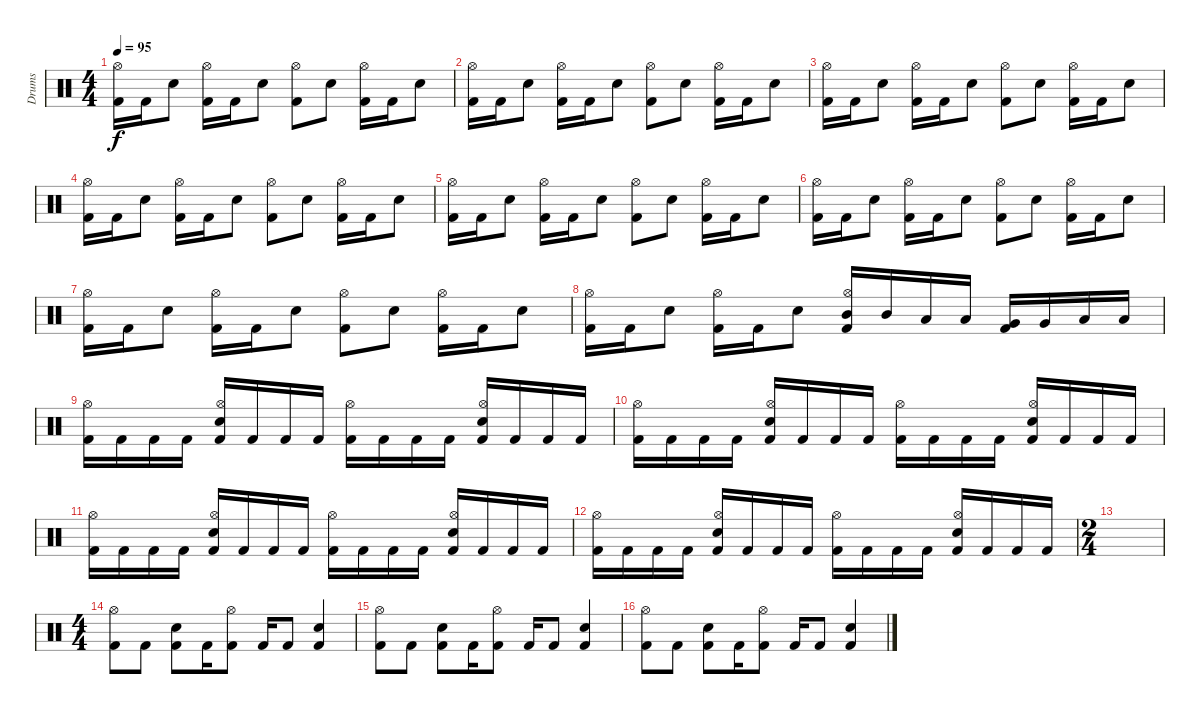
\track ("Drums" "Drums") {instrument percussion}
\staff {score}
\articulation defaults
\ts (4 4)
\tempo 95
\clef neutral
\ks c
("Kick (hit) 2" "Hi-Hat (open)").16{dy f} "Kick (hit) 2".16 "Electric Snare (hit)".8 ("Kick (hit) 2" "Hi-Hat (open)").16 "Kick (hit) 2".16 "Electric Snare (hit)".8 ("Kick (hit) 2" "Hi-Hat (open)").8 "Electric Snare (hit)".8 ("Kick (hit) 2" "Hi-Hat (open)").16 "Kick (hit) 2".16 "Electric Snare (hit)".8 |
("Kick (hit) 2" "Hi-Hat (open)").16 "Kick (hit) 2".16 "Electric Snare (hit)".8 ("Kick (hit) 2" "Hi-Hat (open)").16 "Kick (hit) 2".16 "Electric Snare (hit)".8 ("Kick (hit) 2" "Hi-Hat (open)").8 "Electric Snare (hit)".8 ("Kick (hit) 2" "Hi-Hat (open)").16 "Kick (hit) 2".16 "Electric Snare (hit)".8 |
("Kick (hit) 2" "Hi-Hat (open)").16 "Kick (hit) 2".16 "Electric Snare (hit)".8 ("Kick (hit) 2" "Hi-Hat (open)").16 "Kick (hit) 2".16 "Electric Snare (hit)".8 ("Kick (hit) 2" "Hi-Hat (open)").8 "Electric Snare (hit)".8 ("Kick (hit) 2" "Hi-Hat (open)").16 "Kick (hit) 2".16 "Electric Snare (hit)".8 |
("Kick (hit) 2" "Hi-Hat (open)").16 "Kick (hit) 2".16 "Electric Snare (hit)".8 ("Kick (hit) 2" "Hi-Hat (open)").16 "Kick (hit) 2".16 "Electric Snare (hit)".8 ("Kick (hit) 2" "Hi-Hat (open)").8 "Electric Snare (hit)".8 ("Kick (hit) 2" "Hi-Hat (open)").16 "Kick (hit) 2".16 "Electric Snare (hit)".8 |
("Kick (hit) 2" "Hi-Hat (open)").16 "Kick (hit) 2".16 "Electric Snare (hit)".8 ("Kick (hit) 2" "Hi-Hat (open)").16 "Kick (hit) 2".16 "Electric Snare (hit)".8 ("Kick (hit) 2" "Hi-Hat (open)").8 "Electric Snare (hit)".8 ("Kick (hit) 2" "Hi-Hat (open)").16 "Kick (hit) 2".16 "Electric Snare (hit)".8 |
("Kick (hit) 2" "Hi-Hat (open)").16 "Kick (hit) 2".16 "Electric Snare (hit)".8 ("Kick (hit) 2" "Hi-Hat (open)").16 "Kick (hit) 2".16 "Electric Snare (hit)".8 ("Kick (hit) 2" "Hi-Hat (open)").8 "Electric Snare (hit)".8 ("Kick (hit) 2" "Hi-Hat (open)").16 "Kick (hit) 2".16 "Electric Snare (hit)".8 |
("Kick (hit) 2" "Hi-Hat (open)").16 "Kick (hit) 2".16 "Electric Snare (hit)".8 ("Kick (hit) 2" "Hi-Hat (open)").16 "Kick (hit) 2".16 "Electric Snare (hit)".8 ("Kick (hit) 2" "Hi-Hat (open)").8 "Electric Snare (hit)".8 ("Kick (hit) 2" "Hi-Hat (open)").16 "Kick (hit) 2".16 "Electric Snare (hit)".8 |
("Kick (hit) 2" "Hi-Hat (open)").16 "Kick (hit) 2".16 "Electric Snare (hit)".8 ("Kick (hit) 2" "Hi-Hat (open)").16 "Kick (hit) 2".16 "Electric Snare (hit)".8 ("Kick (hit) 2" "Mid Tom (hit)" "Hi-Hat (open)").16 "Mid Tom (hit)".16 "Low Tom (hit)".16 "Low Tom (hit)".16 ("Kick (hit) 2" "Very Low Tom (hit)").16 "Very Low Tom (hit)".16 "Low Floor Tom (hit)".16 "Low Floor Tom (hit)".16 |
("Kick (hit) 2" "Hi-Hat (open)").16 "Kick (hit) 2".16 "Kick (hit) 2".16 "Kick (hit) 2".16 ("Kick (hit) 2" "Electric Snare (hit)" "Hi-Hat (open)").16 "Kick (hit) 2".16 "Kick (hit) 2".16 "Kick (hit) 2".16 ("Kick (hit) 2" "Hi-Hat (open)").16 "Kick (hit) 2".16 "Kick (hit) 2".16 "Kick (hit) 2".16 ("Kick (hit) 2" "Electric Snare (hit)" "Hi-Hat (open)").16 "Kick (hit) 2".16 "Kick (hit) 2".16 "Kick (hit) 2".16 |
("Kick (hit) 2" "Hi-Hat (open)").16 "Kick (hit) 2".16 "Kick (hit) 2".16 "Kick (hit) 2".16 ("Kick (hit) 2" "Electric Snare (hit)" "Hi-Hat (open)").16 "Kick (hit) 2".16 "Kick (hit) 2".16 "Kick (hit) 2".16 ("Kick (hit) 2" "Hi-Hat (open)").16 "Kick (hit) 2".16 "Kick (hit) 2".16 "Kick (hit) 2".16 ("Kick (hit) 2" "Electric Snare (hit)" "Hi-Hat (open)").16 "Kick (hit) 2".16 "Kick (hit) 2".16 "Kick (hit) 2".16 |
("Kick (hit) 2" "Hi-Hat (open)").16 "Kick (hit) 2".16 "Kick (hit) 2".16 "Kick (hit) 2".16 ("Kick (hit) 2" "Electric Snare (hit)" "Hi-Hat (open)").16 "Kick (hit) 2".16 "Kick (hit) 2".16 "Kick (hit) 2".16 ("Kick (hit) 2" "Hi-Hat (open)").16 "Kick (hit) 2".16 "Kick (hit) 2".16 "Kick (hit) 2".16 ("Kick (hit) 2" "Electric Snare (hit)" "Hi-Hat (open)").16 "Kick (hit) 2".16 "Kick (hit) 2".16 "Kick (hit) 2".16 |
("Kick (hit) 2" "Hi-Hat (open)").16 "Kick (hit) 2".16 "Kick (hit) 2".16 "Kick (hit) 2".16 ("Kick (hit) 2" "Electric Snare (hit)" "Hi-Hat (open)").16 "Kick (hit) 2".16 "Kick (hit) 2".16 "Kick (hit) 2".16 ("Kick (hit) 2" "Hi-Hat (open)").16 "Kick (hit) 2".16 "Kick (hit) 2".16 "Kick (hit) 2".16 ("Kick (hit) 2" "Electric Snare (hit)" "Hi-Hat (open)").16 "Kick (hit) 2".16 "Kick (hit) 2".16 "Kick (hit) 2".16 |
\ts (2 4)
|
\ts (4 4)
("Kick (hit) 2" "Hi-Hat (open)").8 "Kick (hit) 2".8 ("Kick (hit) 2" "Electric Snare (hit)").8 "Kick (hit) 2".16 ("Kick (hit) 2" "Hi-Hat (open)").8 "Kick (hit) 2".16 "Kick (hit) 2".8 ("Kick (hit) 2" "Electric Snare (hit)").4 |
("Kick (hit) 2" "Hi-Hat (open)").8 "Kick (hit) 2".8 ("Kick (hit) 2" "Electric Snare (hit)").8 "Kick (hit) 2".16 ("Kick (hit) 2" "Hi-Hat (open)").8 "Kick (hit) 2".16 "Kick (hit) 2".8 ("Kick (hit) 2" "Electric Snare (hit)").4 |
("Kick (hit) 2" "Hi-Hat (open)").8 "Kick (hit) 2".8 ("Kick (hit) 2" "Electric Snare (hit)").8 "Kick (hit) 2".16 ("Kick (hit) 2" "Hi-Hat (open)").8 "Kick (hit) 2".16 "Kick (hit) 2".8 ("Kick (hit) 2" "Electric Snare (hit)").4
